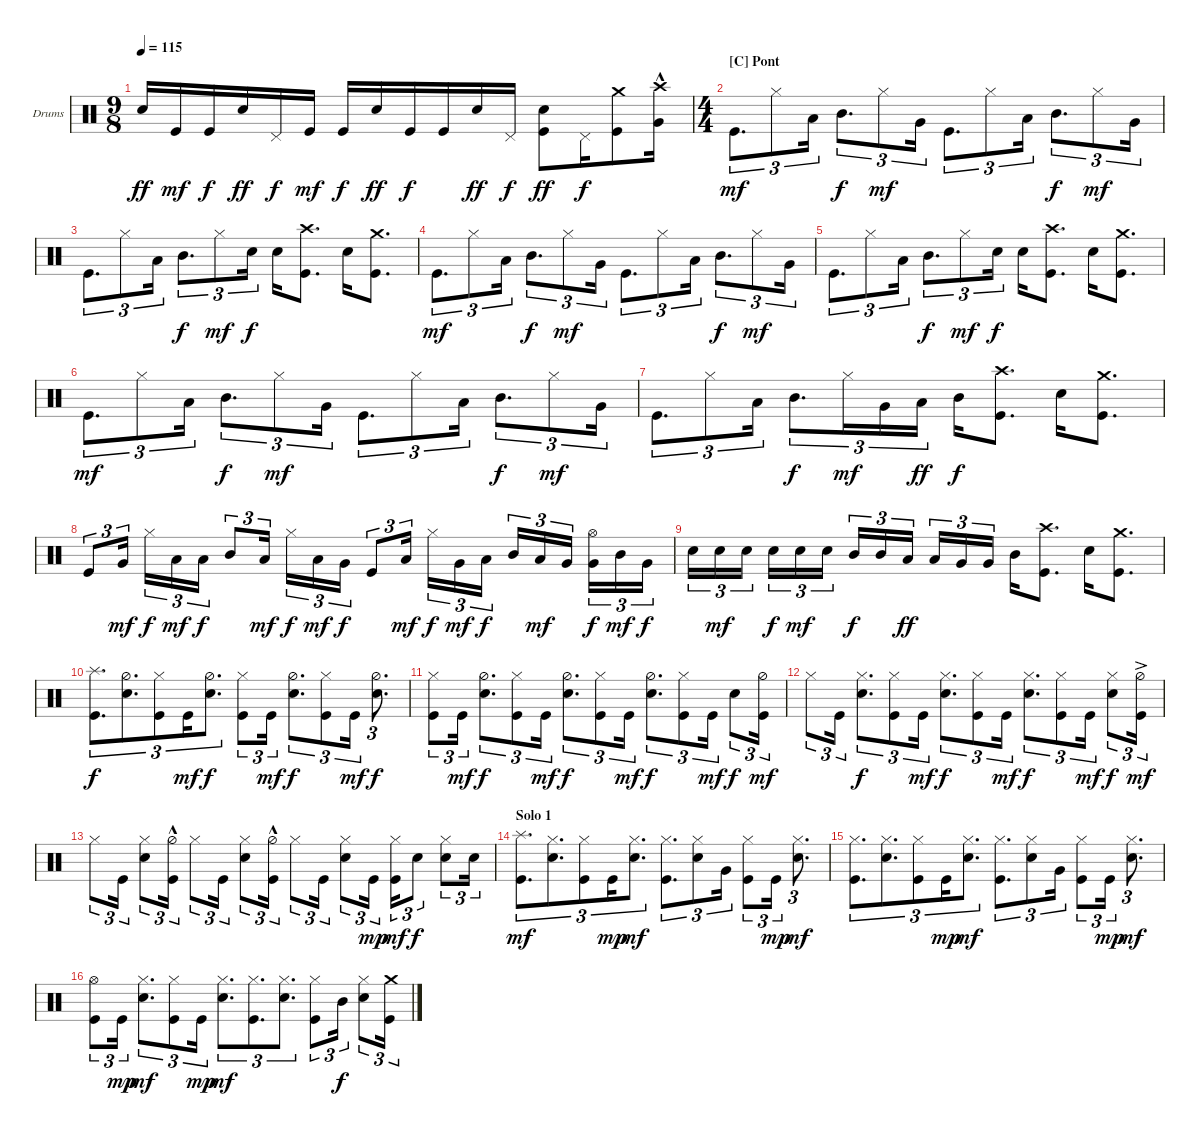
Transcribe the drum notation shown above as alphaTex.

\defaultSystemsLayout 4
\bracketExtendMode groupsimilarinstruments
\firstSystemTrackNameOrientation horizontal
\otherSystemsTrackNameOrientation horizontal
\track ("Batterie " "Drums") {instrument percussion}
\staff {score}
\articulation defaults
\ts (9 8)
\tempo 115
\clef neutral
\ks c "Snare (hit) 2".16{dy ff} "Kick (hit)".16{dy mf} "Kick (hit)".16{dy f} "Snare (hit) 2".16{dy ff} "Pedal Hi-Hat (hit)".16{dy f} "Kick (hit)".16{dy mf} "Kick (hit)".16{dy f} "Snare (hit) 2".16{dy ff} "Kick (hit)".16{dy f} "Kick (hit)".16 "Snare (hit) 2".16{dy ff} "Pedal Hi-Hat (hit)".16{dy f}
("Snare (hit) 2" "Kick (hit)").8{dy ff} "Pedal Hi-Hat (hit)".16{dy f} ("Kick (hit)" "Crash medium (hit)").8 ("Very Low Tom (hit)"{hac} "Crash high (hit)").16 |
\ts (4 4)
\section ("C" "Pont")
"Kick (hit)".8{d tu (3 2) dy mf} "Hi-Hat (closed)".8{tu (3 2)} "Low Tom (hit)".16{tu (3 2)} "Mid Tom (hit)".8{d tu (3 2) dy f} "Hi-Hat (closed)".8{tu (3 2) dy mf} "Very Low Tom (hit)".16{tu (3 2)} "Kick (hit)".8{d tu (3 2)} "Hi-Hat (closed)".8{tu (3 2)} "Low Tom (hit)".16{tu (3 2)} "Mid Tom (hit)".8{d tu (3 2) dy f} "Hi-Hat (closed)".8{tu (3 2) dy mf} "Very Low Tom (hit)".16{tu (3 2)} |
"Kick (hit)".8{d tu (3 2)} "Hi-Hat (closed)".8{tu (3 2)} "Low Tom (hit)".16{tu (3 2)} "Mid Tom (hit)".8{d tu (3 2) dy f} "Hi-Hat (closed)".8{tu (3 2) dy mf} "Snare (hit) 2".16{tu (3 2) dy f} "Snare (hit) 2".16 ("Kick (hit)" "Crash high (hit)").8{d} "Snare (hit) 2".16 ("Kick (hit)" "Crash medium (hit)").8{d} |
"Kick (hit)".8{d tu (3 2) dy mf} "Hi-Hat (closed)".8{tu (3 2)} "Low Tom (hit)".16{tu (3 2)} "Mid Tom (hit)".8{d tu (3 2) dy f} "Hi-Hat (closed)".8{tu (3 2) dy mf} "Very Low Tom (hit)".16{tu (3 2)} "Kick (hit)".8{d tu (3 2)} "Hi-Hat (closed)".8{tu (3 2)} "Low Tom (hit)".16{tu (3 2)} "Mid Tom (hit)".8{d tu (3 2) dy f} "Hi-Hat (closed)".8{tu (3 2) dy mf} "Very Low Tom (hit)".16{tu (3 2)} |
"Kick (hit)".8{d tu (3 2)} "Hi-Hat (closed)".8{tu (3 2)} "Low Tom (hit)".16{tu (3 2)} "Mid Tom (hit)".8{d tu (3 2) dy f} "Hi-Hat (closed)".8{tu (3 2) dy mf} "Snare (hit) 2".16{tu (3 2) dy f} "Snare (hit) 2".16 ("Kick (hit)" "Crash high (hit)").8{d} "Snare (hit) 2".16 ("Kick (hit)" "Crash medium (hit)").8{d} |
"Kick (hit)".8{d tu (3 2) dy mf} "Hi-Hat (closed)".8{tu (3 2)} "Low Tom (hit)".16{tu (3 2)} "Mid Tom (hit)".8{d tu (3 2) dy f} "Hi-Hat (closed)".8{tu (3 2) dy mf} "Very Low Tom (hit)".16{tu (3 2)} "Kick (hit)".8{d tu (3 2)} "Hi-Hat (closed)".8{tu (3 2)} "Low Tom (hit)".16{tu (3 2)} "Mid Tom (hit)".8{d tu (3 2) dy f} "Hi-Hat (closed)".8{tu (3 2) dy mf} "Very Low Tom (hit)".16{tu (3 2)} |
"Kick (hit)".8{d tu (3 2)} "Hi-Hat (closed)".8{tu (3 2)} "Low Tom (hit)".16{tu (3 2)} "Mid Tom (hit)".8{d tu (3 2) dy f} "Hi-Hat (closed)".16{tu (3 2) dy mf} "Very Low Tom (hit)".16{tu (3 2)} "Low Tom (hit)".16{tu (3 2) dy ff} "Mid Tom (hit)".16{dy f} ("Kick (hit)" "Crash high (hit)").8{d} "Snare (hit) 2".16 ("Kick (hit)" "Crash medium (hit)").8{d} |
"Kick (hit)".8{tu (3 2)} "Very Low Tom (hit)".16{tu (3 2) dy mf} "Hi-Hat (closed)".16{tu (3 2) dy f} "Low Tom (hit)".16{tu (3 2) dy mf} "Low Tom (hit)".16{tu (3 2) dy f} "Mid Tom (hit)".8{tu (3 2)} "Low Tom (hit)".16{tu (3 2) dy mf} "Hi-Hat (closed)".16{tu (3 2) dy f} "Low Tom (hit)".16{tu (3 2) dy mf} "Very Low Tom (hit)".16{tu (3 2) dy f} "Kick (hit)".8{tu (3 2)} "Low Tom (hit)".16{tu (3 2) dy mf} "Hi-Hat (closed)".16{tu (3 2) dy f} "Very Low Tom (hit)".16{tu (3 2) dy mf} "Low Tom (hit)".16{tu (3 2) dy f} "Mid Tom (hit)".16{tu (3 2)} "Low Tom (hit)".16{tu (3 2) dy mf} "Very Low Tom (hit)".16{tu (3 2)} ("Hi-Hat (open)" "Very Low Tom (hit)").16{tu (3 2) dy f} "Mid Tom (hit)".16{tu (3 2) dy mf} "Very Low Tom (hit)".16{tu (3 2) dy f} |
"Snare (hit) 2".16{tu (3 2)} "Snare (hit) 2".16{tu (3 2) dy mf} "Snare (hit) 2".16{tu (3 2)} "Snare (hit) 2".16{tu (3 2) dy f} "Snare (hit) 2".16{tu (3 2) dy mf} "Snare (hit) 2".16{tu (3 2)} "Mid Tom (hit)".16{tu (3 2) dy f} "Mid Tom (hit)".16{tu (3 2)} "Low Tom (hit)".16{tu (3 2) dy ff} "Low Tom (hit)".16{tu (3 2)} "Very Low Tom (hit)".16{tu (3 2)} "Very Low Tom (hit)".16{tu (3 2)} "Mid Tom (hit)".16 ("Kick (hit)" "Crash high (hit)").8{d} "Snare (hit) 2".16 ("Kick (hit)" "Crash medium (hit)").8{d} |
("Kick (hit)" "Splash (hit)").8{d tu (3 2) dy f} ("Snare (hit) 2" "Hi-Hat (half)").8{d tu (3 2)} ("Kick (hit)" "Hi-Hat (closed)").8{tu (3 2)} "Kick (hit)".16{tu (3 2) dy mf} ("Snare (hit) 2" "Hi-Hat (half)").8{d tu (3 2) dy f} ("Kick (hit)" "Hi-Hat (closed)").8{tu (3 2)} "Kick (hit)".16{tu (3 2) dy mf} ("Snare (hit) 2" "Hi-Hat (half)").8{d tu (3 2) dy f} ("Kick (hit)" "Hi-Hat (closed)").8{tu (3 2)} "Kick (hit)".16{tu (3 2) dy mf} ("Snare (hit) 2" "Hi-Hat (half)").8{d tu (3 2) dy f} |
("Kick (hit)" "Hi-Hat (closed)").8{tu (3 2)} "Kick (hit)".16{tu (3 2) dy mf} ("Snare (hit) 2" "Hi-Hat (half)").8{d tu (3 2) dy f} ("Kick (hit)" "Hi-Hat (closed)").8{tu (3 2)} "Kick (hit)".16{tu (3 2) dy mf} ("Snare (hit) 2" "Hi-Hat (half)").8{d tu (3 2) dy f} ("Kick (hit)" "Hi-Hat (closed)").8{tu (3 2)} "Kick (hit)".16{tu (3 2) dy mf} ("Snare (hit) 2" "Hi-Hat (half)").8{d tu (3 2) dy f} ("Kick (hit)" "Hi-Hat (closed)").8{tu (3 2)} "Kick (hit)".16{tu (3 2) dy mf} "Snare (hit) 2".8{tu (3 2) dy f} ("Hi-Hat (half)" "Kick (hit)").16{tu (3 2) dy mf} |
"Hi-Hat (closed)".8{tu (3 2)} "Kick (hit)".16{tu (3 2)} ("Snare (hit) 2" "Hi-Hat (closed)").8{d tu (3 2) dy f} ("Kick (hit)" "Hi-Hat (closed)").8{tu (3 2)} "Kick (hit)".16{tu (3 2) dy mf} ("Snare (hit) 2" "Hi-Hat (closed)").8{d tu (3 2) dy f} ("Kick (hit)" "Hi-Hat (closed)").8{tu (3 2)} "Kick (hit)".16{tu (3 2) dy mf} ("Snare (hit) 2" "Hi-Hat (closed)").8{d tu (3 2) dy f} ("Kick (hit)" "Hi-Hat (closed)").8{tu (3 2)} "Kick (hit)".16{tu (3 2) dy mf} ("Snare (hit) 2" "Hi-Hat (closed)").8{tu (3 2) dy f} ("Hi-Hat (half)"{ac} "Kick (hit)").16{tu (3 2) dy mf} |
"Hi-Hat (closed)".8{tu (3 2)} "Kick (hit)".16{tu (3 2)} ("Snare (hit) 2" "Hi-Hat (closed)").8{tu (3 2)} ("Hi-Hat (half)"{hac} "Kick (hit)").16{tu (3 2)} "Hi-Hat (closed)".8{tu (3 2)} "Kick (hit)".16{tu (3 2)} ("Snare (hit) 2" "Hi-Hat (closed)").8{tu (3 2)} ("Kick (hit)" "Hi-Hat (half)"{hac}).16{tu (3 2)} "Hi-Hat (closed)".8{tu (3 2)} "Kick (hit)".16{tu (3 2)} ("Snare (hit) 2" "Hi-Hat (closed)").8{tu (3 2)} "Kick (hit)".16{tu (3 2) dy mp} ("Kick (hit)" "Hi-Hat (closed)").16{tu (3 2) dy mf} "Snare (hit) 2".8{tu (3 2) dy f} ("Snare (hit) 2" "Hi-Hat (closed)").8{tu (3 2)} "Snare (hit) 2".16{tu (3 2)} |
\section ("" "Solo 1")
("Kick (hit)" "Splash (hit)").8{d tu (3 2) dy mf} ("Snare (hit) 2" "Hi-Hat (closed)").8{d tu (3 2)} ("Kick (hit)" "Hi-Hat (closed)").8{tu (3 2)} "Kick (hit)".16{tu (3 2) dy mp} ("Snare (hit) 2" "Hi-Hat (closed)").8{d tu (3 2) dy mf} ("Kick (hit)" "Hi-Hat (closed)").8{d tu (3 2)} ("Snare (hit) 2" "Hi-Hat (closed)").8{tu (3 2)} "Very Low Tom (hit)".16{tu (3 2)} ("Kick (hit)" "Hi-Hat (closed)").8{tu (3 2)} "Kick (hit)".16{tu (3 2) dy mp} ("Snare (hit) 2" "Hi-Hat (closed)").8{d tu (3 2) dy mf} |
("Kick (hit)" "Hi-Hat (closed)").8{d tu (3 2)} ("Snare (hit) 2" "Hi-Hat (closed)").8{d tu (3 2)} ("Kick (hit)" "Hi-Hat (closed)").8{tu (3 2)} "Kick (hit)".16{tu (3 2) dy mp} ("Snare (hit) 2" "Hi-Hat (closed)").8{d tu (3 2) dy mf} ("Kick (hit)" "Hi-Hat (closed)").8{d tu (3 2)} ("Snare (hit) 2" "Hi-Hat (closed)").8{tu (3 2)} "Very Low Tom (hit)".16{tu (3 2)} ("Kick (hit)" "Hi-Hat (closed)").8{tu (3 2)} "Kick (hit)".16{tu (3 2) dy mp} ("Snare (hit) 2" "Hi-Hat (closed)").8{d tu (3 2) dy mf} |
("Kick (hit)" "Hi-Hat (open)").8{tu (3 2)} "Kick (hit)".16{tu (3 2) dy mp} ("Snare (hit) 2" "Hi-Hat (closed)").8{d tu (3 2) dy mf} ("Kick (hit)" "Hi-Hat (closed)").8{tu (3 2)} "Kick (hit)".16{tu (3 2) dy mp} ("Snare (hit) 2" "Hi-Hat (closed)").8{d tu (3 2) dy mf} ("Kick (hit)" "Hi-Hat (closed)").8{d tu (3 2)} ("Snare (hit) 2" "Hi-Hat (closed)").8{d tu (3 2)} ("Kick (hit)" "Hi-Hat (closed)").8{tu (3 2)} "Mid Tom (hit)".16{tu (3 2) dy f} ("Snare (hit) 2" "Hi-Hat (closed)").8{tu (3 2)} ("Kick (hit)" "Crash medium (hit)").16{tu (3 2)}
